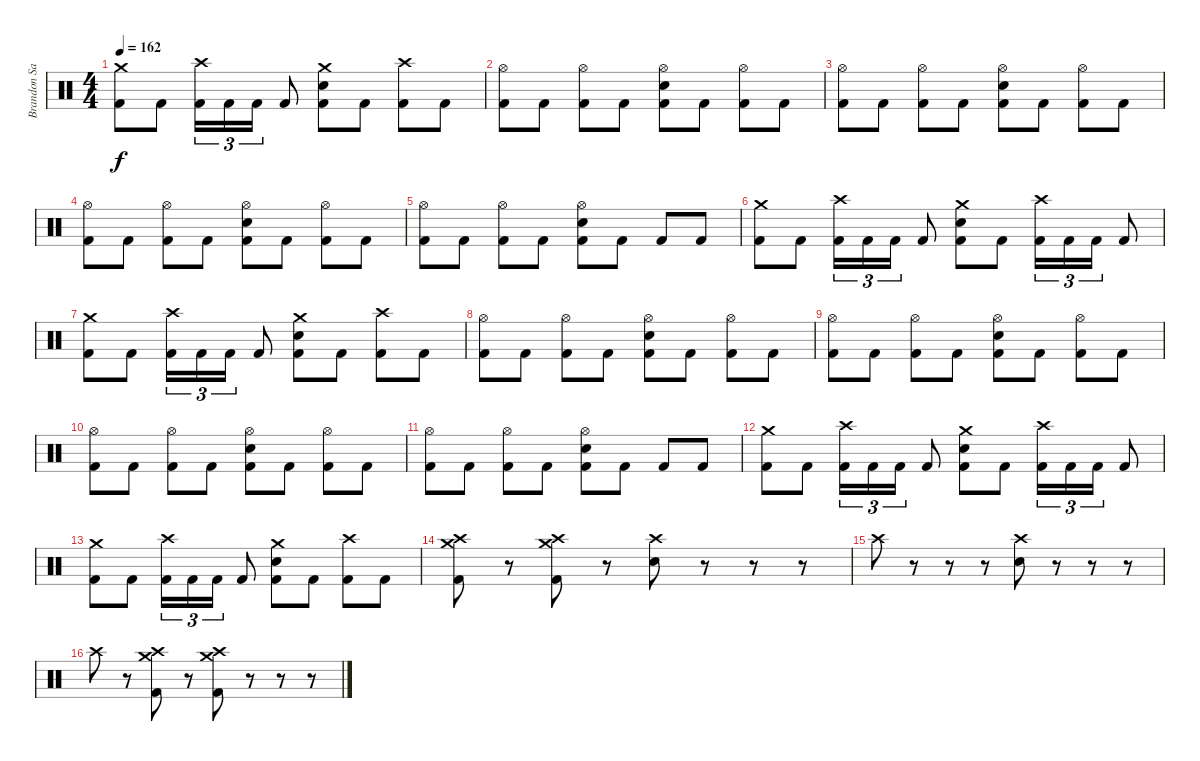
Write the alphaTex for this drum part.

\track ("Brandon Saller" "Brandon Sa") {instrument percussion}
\staff {score}
\articulation defaults
\ts (4 4)
\tempo 162
\clef neutral
\ks c
("Crash medium (hit)" "Kick (hit) 2").8{dy f} "Kick (hit) 2".8 ("Crash high (hit)" "Kick (hit) 2").16{tu (3 2)} "Kick (hit) 2".16{tu (3 2)} "Kick (hit) 2".16{tu (3 2)} "Kick (hit) 2".8 ("Crash medium (hit)" "Electric Snare (hit)" "Kick (hit) 2").8 "Kick (hit) 2".8 ("Crash high (hit)" "Kick (hit) 2").8 "Kick (hit) 2".8 |
("Hi-Hat (open)" "Kick (hit) 2").8 "Kick (hit) 2".8 ("Hi-Hat (open)" "Kick (hit) 2").8 "Kick (hit) 2".8 ("Hi-Hat (open)" "Electric Snare (hit)" "Kick (hit) 2").8 "Kick (hit) 2".8 ("Hi-Hat (open)" "Kick (hit) 2").8 "Kick (hit) 2".8 |
("Hi-Hat (open)" "Kick (hit) 2").8 "Kick (hit) 2".8 ("Hi-Hat (open)" "Kick (hit) 2").8 "Kick (hit) 2".8 ("Hi-Hat (open)" "Electric Snare (hit)" "Kick (hit) 2").8 "Kick (hit) 2".8 ("Hi-Hat (open)" "Kick (hit) 2").8 "Kick (hit) 2".8 |
("Hi-Hat (open)" "Kick (hit) 2").8 "Kick (hit) 2".8 ("Hi-Hat (open)" "Kick (hit) 2").8 "Kick (hit) 2".8 ("Hi-Hat (open)" "Electric Snare (hit)" "Kick (hit) 2").8 "Kick (hit) 2".8 ("Hi-Hat (open)" "Kick (hit) 2").8 "Kick (hit) 2".8 |
("Hi-Hat (open)" "Kick (hit) 2").8 "Kick (hit) 2".8 ("Hi-Hat (open)" "Kick (hit) 2").8 "Kick (hit) 2".8 ("Hi-Hat (open)" "Electric Snare (hit)" "Kick (hit) 2").8 "Kick (hit) 2".8 "Kick (hit) 2".8 "Kick (hit) 2".8 |
("Crash medium (hit)" "Kick (hit) 2").8 "Kick (hit) 2".8 ("Crash high (hit)" "Kick (hit) 2").16{tu (3 2)} "Kick (hit) 2".16{tu (3 2)} "Kick (hit) 2".16{tu (3 2)} "Kick (hit) 2".8 ("Crash medium (hit)" "Electric Snare (hit)" "Kick (hit) 2").8 "Kick (hit) 2".8 ("Crash high (hit)" "Kick (hit) 2").16{tu (3 2)} "Kick (hit) 2".16{tu (3 2)} "Kick (hit) 2".16{tu (3 2)} "Kick (hit) 2".8 |
("Crash medium (hit)" "Kick (hit) 2").8 "Kick (hit) 2".8 ("Crash high (hit)" "Kick (hit) 2").16{tu (3 2)} "Kick (hit) 2".16{tu (3 2)} "Kick (hit) 2".16{tu (3 2)} "Kick (hit) 2".8 ("Crash medium (hit)" "Electric Snare (hit)" "Kick (hit) 2").8 "Kick (hit) 2".8 ("Crash high (hit)" "Kick (hit) 2").8 "Kick (hit) 2".8 |
("Hi-Hat (open)" "Kick (hit) 2").8 "Kick (hit) 2".8 ("Hi-Hat (open)" "Kick (hit) 2").8 "Kick (hit) 2".8 ("Hi-Hat (open)" "Electric Snare (hit)" "Kick (hit) 2").8 "Kick (hit) 2".8 ("Hi-Hat (open)" "Kick (hit) 2").8 "Kick (hit) 2".8 |
("Hi-Hat (open)" "Kick (hit) 2").8 "Kick (hit) 2".8 ("Hi-Hat (open)" "Kick (hit) 2").8 "Kick (hit) 2".8 ("Hi-Hat (open)" "Electric Snare (hit)" "Kick (hit) 2").8 "Kick (hit) 2".8 ("Hi-Hat (open)" "Kick (hit) 2").8 "Kick (hit) 2".8 |
("Hi-Hat (open)" "Kick (hit) 2").8 "Kick (hit) 2".8 ("Hi-Hat (open)" "Kick (hit) 2").8 "Kick (hit) 2".8 ("Hi-Hat (open)" "Electric Snare (hit)" "Kick (hit) 2").8 "Kick (hit) 2".8 ("Hi-Hat (open)" "Kick (hit) 2").8 "Kick (hit) 2".8 |
("Hi-Hat (open)" "Kick (hit) 2").8 "Kick (hit) 2".8 ("Hi-Hat (open)" "Kick (hit) 2").8 "Kick (hit) 2".8 ("Hi-Hat (open)" "Electric Snare (hit)" "Kick (hit) 2").8 "Kick (hit) 2".8 "Kick (hit) 2".8 "Kick (hit) 2".8 |
("Crash medium (hit)" "Kick (hit) 2").8 "Kick (hit) 2".8 ("Crash high (hit)" "Kick (hit) 2").16{tu (3 2)} "Kick (hit) 2".16{tu (3 2)} "Kick (hit) 2".16{tu (3 2)} "Kick (hit) 2".8 ("Crash medium (hit)" "Electric Snare (hit)" "Kick (hit) 2").8 "Kick (hit) 2".8 ("Crash high (hit)" "Kick (hit) 2").16{tu (3 2)} "Kick (hit) 2".16{tu (3 2)} "Kick (hit) 2".16{tu (3 2)} "Kick (hit) 2".8 |
("Crash medium (hit)" "Kick (hit) 2").8 "Kick (hit) 2".8 ("Crash high (hit)" "Kick (hit) 2").16{tu (3 2)} "Kick (hit) 2".16{tu (3 2)} "Kick (hit) 2".16{tu (3 2)} "Kick (hit) 2".8 ("Crash medium (hit)" "Electric Snare (hit)" "Kick (hit) 2").8 "Kick (hit) 2".8 ("Crash high (hit)" "Kick (hit) 2").8 "Kick (hit) 2".8 |
("Crash high (hit)" "Crash medium (hit)" "Kick (hit) 2").8 r.8 ("Crash high (hit)" "Crash medium (hit)" "Kick (hit) 2").8 r.8 ("Crash high (hit)" "Electric Snare (hit)").8 r.8 r.8 r.8 |
"Crash high (hit)".8 r.8 r.8 r.8 ("Crash high (hit)" "Electric Snare (hit)").8 r.8 r.8 r.8 |
"Crash high (hit)".8 r.8 ("Crash high (hit)" "Crash medium (hit)" "Kick (hit) 2").8 r.8 ("Crash high (hit)" "Crash medium (hit)" "Kick (hit) 2").8 r.8 r.8 r.8
